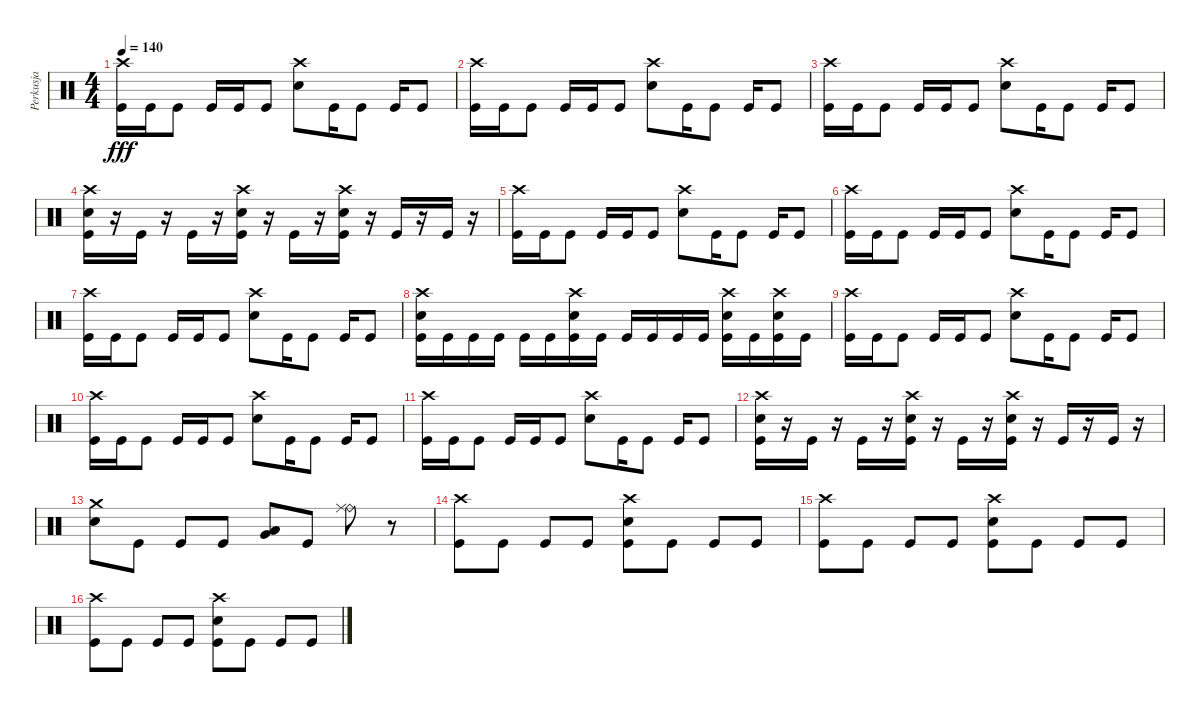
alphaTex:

\track ("Perkusja" "Perkusja") {instrument percussion}
\staff {score}
\articulation defaults
\ts (4 4)
\tempo 140
\clef neutral
\ks c
("Crash high (hit)" "Kick (hit)").16{dy fff} "Kick (hit)".16 "Kick (hit)".8 "Kick (hit)".16 "Kick (hit)".16 "Kick (hit)".8 ("Crash high (hit)" "Electric Snare (hit)").8 "Kick (hit)".16 "Kick (hit)".8 "Kick (hit)".16 "Kick (hit)".8 |
("Crash high (hit)" "Kick (hit)").16 "Kick (hit)".16 "Kick (hit)".8 "Kick (hit)".16 "Kick (hit)".16 "Kick (hit)".8 ("Crash high (hit)" "Electric Snare (hit)").8 "Kick (hit)".16 "Kick (hit)".8 "Kick (hit)".16 "Kick (hit)".8 |
("Crash high (hit)" "Kick (hit)").16 "Kick (hit)".16 "Kick (hit)".8 "Kick (hit)".16 "Kick (hit)".16 "Kick (hit)".8 ("Crash high (hit)" "Electric Snare (hit)").8 "Kick (hit)".16 "Kick (hit)".8 "Kick (hit)".16 "Kick (hit)".8 |
("Crash high (hit)" "Electric Snare (hit)" "Kick (hit)").16 r.16 "Kick (hit)".16 r.16 "Kick (hit)".16 r.16 ("Crash high (hit)" "Electric Snare (hit)" "Kick (hit)").16 r.16 "Kick (hit)".16 r.16 ("Crash high (hit)" "Electric Snare (hit)" "Kick (hit)").16 r.16 "Kick (hit)".16 r.16 "Kick (hit)".16 r.16 |
("Crash high (hit)" "Kick (hit)").16 "Kick (hit)".16 "Kick (hit)".8 "Kick (hit)".16 "Kick (hit)".16 "Kick (hit)".8 ("Crash high (hit)" "Electric Snare (hit)").8 "Kick (hit)".16 "Kick (hit)".8 "Kick (hit)".16 "Kick (hit)".8 |
("Crash high (hit)" "Kick (hit)").16 "Kick (hit)".16 "Kick (hit)".8 "Kick (hit)".16 "Kick (hit)".16 "Kick (hit)".8 ("Crash high (hit)" "Electric Snare (hit)").8 "Kick (hit)".16 "Kick (hit)".8 "Kick (hit)".16 "Kick (hit)".8 |
("Crash high (hit)" "Kick (hit)").16 "Kick (hit)".16 "Kick (hit)".8 "Kick (hit)".16 "Kick (hit)".16 "Kick (hit)".8 ("Crash high (hit)" "Electric Snare (hit)").8 "Kick (hit)".16 "Kick (hit)".8 "Kick (hit)".16 "Kick (hit)".8 |
("Crash high (hit)" "Electric Snare (hit)" "Kick (hit)").16 "Kick (hit)".16 "Kick (hit)".16 "Kick (hit)".16 "Kick (hit)".16 "Kick (hit)".16 ("Crash high (hit)" "Electric Snare (hit)" "Kick (hit)").16 "Kick (hit)".16 "Kick (hit)".16 "Kick (hit)".16 "Kick (hit)".16 "Kick (hit)".16 ("Crash high (hit)" "Electric Snare (hit)" "Kick (hit)").16 "Kick (hit)".16 ("Crash high (hit)" "Electric Snare (hit)" "Kick (hit)").16 "Kick (hit)".16 |
("Crash high (hit)" "Kick (hit)").16 "Kick (hit)".16 "Kick (hit)".8 "Kick (hit)".16 "Kick (hit)".16 "Kick (hit)".8 ("Crash high (hit)" "Electric Snare (hit)").8 "Kick (hit)".16 "Kick (hit)".8 "Kick (hit)".16 "Kick (hit)".8 |
("Crash high (hit)" "Kick (hit)").16 "Kick (hit)".16 "Kick (hit)".8 "Kick (hit)".16 "Kick (hit)".16 "Kick (hit)".8 ("Crash high (hit)" "Electric Snare (hit)").8 "Kick (hit)".16 "Kick (hit)".8 "Kick (hit)".16 "Kick (hit)".8 |
("Crash high (hit)" "Kick (hit)").16 "Kick (hit)".16 "Kick (hit)".8 "Kick (hit)".16 "Kick (hit)".16 "Kick (hit)".8 ("Crash high (hit)" "Electric Snare (hit)").8 "Kick (hit)".16 "Kick (hit)".8 "Kick (hit)".16 "Kick (hit)".8 |
("Crash high (hit)" "Electric Snare (hit)" "Kick (hit)").16 r.16 "Kick (hit)".16 r.16 "Kick (hit)".16 r.16 ("Crash high (hit)" "Electric Snare (hit)" "Kick (hit)").16 r.16 "Kick (hit)".16 r.16 ("Crash high (hit)" "Electric Snare (hit)" "Kick (hit)").16 r.16 "Kick (hit)".16 r.16 "Kick (hit)".16 r.16 |
("Crash medium (hit)" "Electric Snare (hit)").8 "Kick (hit)".8 "Kick (hit)".8 "Kick (hit)".8 ("Very Low Tom (hit)" "Low Floor Tom (hit)").8 "Kick (hit)".8 ("Ride (bell)" "Ride (middle)").8 r.8 |
("Crash high (hit)" "Kick (hit)").8 "Kick (hit)".8 "Kick (hit)".8 "Kick (hit)".8 ("Crash high (hit)" "Electric Snare (hit)" "Kick (hit)").8 "Kick (hit)".8 "Kick (hit)".8 "Kick (hit)".8 |
("Crash high (hit)" "Kick (hit)").8 "Kick (hit)".8 "Kick (hit)".8 "Kick (hit)".8 ("Crash high (hit)" "Electric Snare (hit)" "Kick (hit)").8 "Kick (hit)".8 "Kick (hit)".8 "Kick (hit)".8 |
("Crash high (hit)" "Kick (hit)").8 "Kick (hit)".8 "Kick (hit)".8 "Kick (hit)".8 ("Crash high (hit)" "Electric Snare (hit)" "Kick (hit)").8 "Kick (hit)".8 "Kick (hit)".8 "Kick (hit)".8
